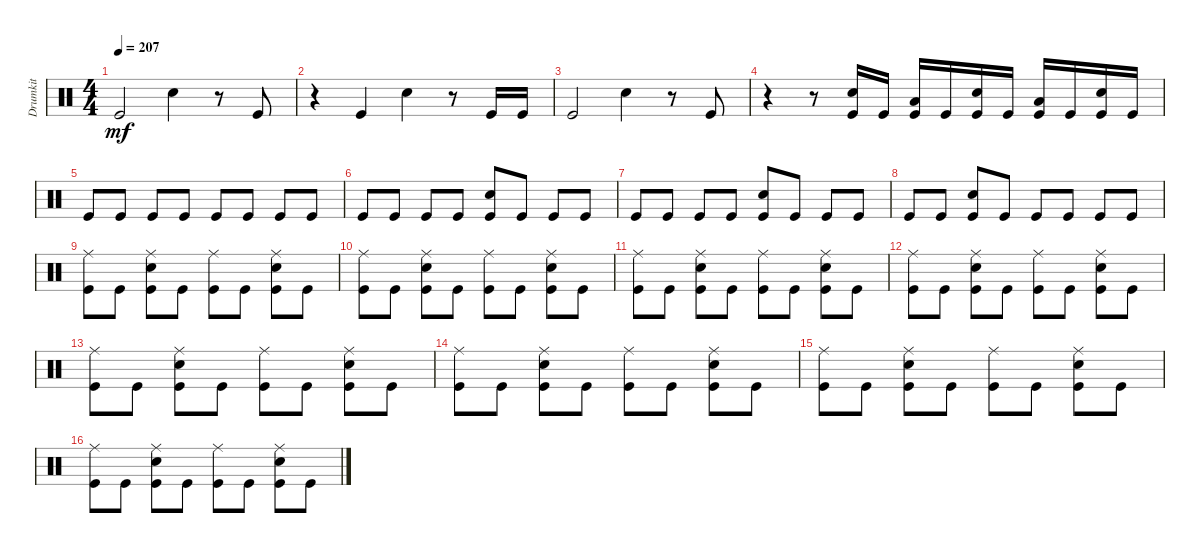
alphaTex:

\track ("Drumkit" "Drumkit") {instrument percussion}
\staff {score}
\articulation defaults
\ts (4 4)
\tempo 207
\clef neutral
\ks c "Kick (hit)".2{dy mf} "Snare (hit) 2".4
r.8 "Kick (hit)".8 |
r.4 "Kick (hit)".4 "Snare (hit) 2".4 r.8 "Kick (hit)".16 "Kick (hit)".16 |
"Kick (hit)".2 "Snare (hit) 2".4 r.8 "Kick (hit)".8 |
r.4 r.8 ("Kick (hit)" "Snare (hit) 2").16 "Kick (hit)".16 ("Kick (hit)" "Low Tom (hit)").16 "Kick (hit)".16 ("Kick (hit)" "Snare (hit) 2").16 "Kick (hit)".16 ("Kick (hit)" "Low Tom (hit)").16 "Kick (hit)".16 ("Kick (hit)" "Snare (hit) 2").16 "Kick (hit)".16 |
"Kick (hit)".8 "Kick (hit)".8 "Kick (hit)".8 "Kick (hit)".8 "Kick (hit)".8 "Kick (hit)".8 "Kick (hit)".8 "Kick (hit)".8 |
"Kick (hit)".8 "Kick (hit)".8 "Kick (hit)".8 "Kick (hit)".8 ("Kick (hit)" "Snare (hit) 2").8 "Kick (hit)".8 "Kick (hit)".8 "Kick (hit)".8 |
"Kick (hit)".8 "Kick (hit)".8 "Kick (hit)".8 "Kick (hit)".8 ("Kick (hit)" "Snare (hit) 2").8 "Kick (hit)".8 "Kick (hit)".8 "Kick (hit)".8 |
"Kick (hit)".8 "Kick (hit)".8 ("Kick (hit)" "Snare (hit) 2").8 "Kick (hit)".8 "Kick (hit)".8 "Kick (hit)".8 "Kick (hit)".8 "Kick (hit)".8 |
("Kick (hit)" "Ride (middle)").8 "Kick (hit)".8 ("Snare (hit) 2" "Ride (middle)" "Kick (hit)").8 "Kick (hit)".8 ("Kick (hit)" "Ride (middle)").8 "Kick (hit)".8 ("Snare (hit) 2" "Ride (middle)" "Kick (hit)").8 "Kick (hit)".8 |
("Kick (hit)" "Ride (middle)").8 "Kick (hit)".8 ("Snare (hit) 2" "Ride (middle)" "Kick (hit)").8 "Kick (hit)".8 ("Kick (hit)" "Ride (middle)").8 "Kick (hit)".8 ("Snare (hit) 2" "Ride (middle)" "Kick (hit)").8 "Kick (hit)".8 |
("Kick (hit)" "Ride (middle)").8 "Kick (hit)".8 ("Snare (hit) 2" "Ride (middle)" "Kick (hit)").8 "Kick (hit)".8 ("Kick (hit)" "Ride (middle)").8 "Kick (hit)".8 ("Snare (hit) 2" "Ride (middle)" "Kick (hit)").8 "Kick (hit)".8 |
("Kick (hit)" "Ride (middle)").8 "Kick (hit)".8 ("Snare (hit) 2" "Ride (middle)" "Kick (hit)").8 "Kick (hit)".8 ("Kick (hit)" "Ride (middle)").8 "Kick (hit)".8 ("Snare (hit) 2" "Ride (middle)" "Kick (hit)").8 "Kick (hit)".8 |
("Kick (hit)" "Ride (middle)").8 "Kick (hit)".8 ("Snare (hit) 2" "Ride (middle)" "Kick (hit)").8 "Kick (hit)".8 ("Kick (hit)" "Ride (middle)").8 "Kick (hit)".8 ("Snare (hit) 2" "Ride (middle)" "Kick (hit)").8 "Kick (hit)".8 |
("Kick (hit)" "Ride (middle)").8 "Kick (hit)".8 ("Snare (hit) 2" "Ride (middle)" "Kick (hit)").8 "Kick (hit)".8 ("Kick (hit)" "Ride (middle)").8 "Kick (hit)".8 ("Snare (hit) 2" "Ride (middle)" "Kick (hit)").8 "Kick (hit)".8 |
("Kick (hit)" "Ride (middle)").8 "Kick (hit)".8 ("Snare (hit) 2" "Ride (middle)" "Kick (hit)").8 "Kick (hit)".8 ("Kick (hit)" "Ride (middle)").8 "Kick (hit)".8 ("Snare (hit) 2" "Ride (middle)" "Kick (hit)").8 "Kick (hit)".8 |
("Kick (hit)" "Ride (middle)").8 "Kick (hit)".8 ("Snare (hit) 2" "Ride (middle)" "Kick (hit)").8 "Kick (hit)".8 ("Kick (hit)" "Ride (middle)").8 "Kick (hit)".8 ("Snare (hit) 2" "Ride (middle)" "Kick (hit)").8 "Kick (hit)".8
